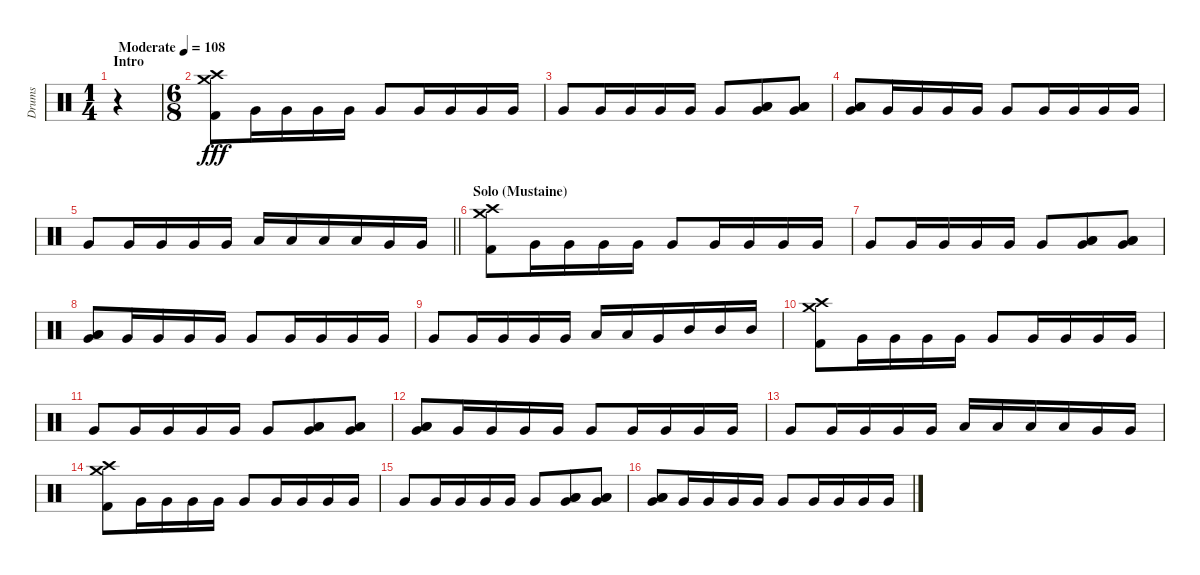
\track ("Drums" "Drums") {instrument percussion}
\staff {score}
\articulation defaults
\ts (1 4)
\section ("" "Intro")
\tempo (108 "Moderate")
\clef neutral
\ks c
r.4{dy fff} |
\ts (6 8)
("Crash medium (hit)" "Crash high (hit)" "Kick (hit) 2").8 "Very Low Tom (hit)".16 "Very Low Tom (hit)".16 "Very Low Tom (hit)".16 "Very Low Tom (hit)".16 "Very Low Tom (hit)".8 "Very Low Tom (hit)".16 "Very Low Tom (hit)".16 "Very Low Tom (hit)".16 "Very Low Tom (hit)".16 |
"Very Low Tom (hit)".8 "Very Low Tom (hit)".16 "Very Low Tom (hit)".16 "Very Low Tom (hit)".16 "Very Low Tom (hit)".16 "Very Low Tom (hit)".8 ("Low Floor Tom (hit)" "Low Tom (hit)" "Very Low Tom (hit)").8 ("Low Floor Tom (hit)" "Low Tom (hit)" "Very Low Tom (hit)").8 |
("Low Floor Tom (hit)" "Low Tom (hit)" "Very Low Tom (hit)").8 "Very Low Tom (hit)".16 "Very Low Tom (hit)".16 "Very Low Tom (hit)".16 "Very Low Tom (hit)".16 "Very Low Tom (hit)".8 "Very Low Tom (hit)".16 "Very Low Tom (hit)".16 "Very Low Tom (hit)".16 "Very Low Tom (hit)".16 |
\barLineRight lightlight "Very Low Tom (hit)".8 "Very Low Tom (hit)".16 "Very Low Tom (hit)".16 "Very Low Tom (hit)".16 "Very Low Tom (hit)".16 "Low Tom (hit)".16 "Low Tom (hit)".16 "Low Floor Tom (hit)".16 "Low Floor Tom (hit)".16 "Very Low Tom (hit)".16 "Very Low Tom (hit)".16
|
\section ("" "Solo (Mustaine)")
("Crash medium (hit)" "Crash high (hit)" "Kick (hit) 2").8 "Very Low Tom (hit)".16 "Very Low Tom (hit)".16 "Very Low Tom (hit)".16 "Very Low Tom (hit)".16 "Very Low Tom (hit)".8 "Very Low Tom (hit)".16 "Very Low Tom (hit)".16 "Very Low Tom (hit)".16 "Very Low Tom (hit)".16 |
"Very Low Tom (hit)".8 "Very Low Tom (hit)".16 "Very Low Tom (hit)".16 "Very Low Tom (hit)".16 "Very Low Tom (hit)".16 "Very Low Tom (hit)".8 ("Low Floor Tom (hit)" "Low Tom (hit)" "Very Low Tom (hit)").8 ("Low Floor Tom (hit)" "Low Tom (hit)" "Very Low Tom (hit)").8 |
("Low Floor Tom (hit)" "Low Tom (hit)" "Very Low Tom (hit)").8 "Very Low Tom (hit)".16 "Very Low Tom (hit)".16 "Very Low Tom (hit)".16 "Very Low Tom (hit)".16 "Very Low Tom (hit)".8 "Very Low Tom (hit)".16 "Very Low Tom (hit)".16 "Very Low Tom (hit)".16 "Very Low Tom (hit)".16 |
"Very Low Tom (hit)".8 "Very Low Tom (hit)".16 "Very Low Tom (hit)".16 "Very Low Tom (hit)".16 "Very Low Tom (hit)".16 "Low Tom (hit)".16 "Low Tom (hit)".16 "Very Low Tom (hit)".16 "Mid Tom (hit)".16 "Mid Tom (hit)".16 "Mid Tom (hit)".16 |
("Crash medium (hit)" "Crash high (hit)" "Kick (hit) 2").8 "Very Low Tom (hit)".16 "Very Low Tom (hit)".16 "Very Low Tom (hit)".16 "Very Low Tom (hit)".16 "Very Low Tom (hit)".8 "Very Low Tom (hit)".16 "Very Low Tom (hit)".16 "Very Low Tom (hit)".16 "Very Low Tom (hit)".16 |
"Very Low Tom (hit)".8 "Very Low Tom (hit)".16 "Very Low Tom (hit)".16 "Very Low Tom (hit)".16 "Very Low Tom (hit)".16 "Very Low Tom (hit)".8 ("Low Floor Tom (hit)" "Low Tom (hit)" "Very Low Tom (hit)").8 ("Low Floor Tom (hit)" "Low Tom (hit)" "Very Low Tom (hit)").8 |
("Low Floor Tom (hit)" "Low Tom (hit)" "Very Low Tom (hit)").8 "Very Low Tom (hit)".16 "Very Low Tom (hit)".16 "Very Low Tom (hit)".16 "Very Low Tom (hit)".16 "Very Low Tom (hit)".8 "Very Low Tom (hit)".16 "Very Low Tom (hit)".16 "Very Low Tom (hit)".16 "Very Low Tom (hit)".16 |
"Very Low Tom (hit)".8 "Very Low Tom (hit)".16 "Very Low Tom (hit)".16 "Very Low Tom (hit)".16 "Very Low Tom (hit)".16 "Low Tom (hit)".16 "Low Tom (hit)".16 "Low Floor Tom (hit)".16 "Low Floor Tom (hit)".16 "Very Low Tom (hit)".16 "Very Low Tom (hit)".16 |
("Crash medium (hit)" "Crash high (hit)" "Kick (hit) 2").8 "Very Low Tom (hit)".16 "Very Low Tom (hit)".16 "Very Low Tom (hit)".16 "Very Low Tom (hit)".16 "Very Low Tom (hit)".8 "Very Low Tom (hit)".16 "Very Low Tom (hit)".16 "Very Low Tom (hit)".16 "Very Low Tom (hit)".16 |
"Very Low Tom (hit)".8 "Very Low Tom (hit)".16 "Very Low Tom (hit)".16 "Very Low Tom (hit)".16 "Very Low Tom (hit)".16 "Very Low Tom (hit)".8 ("Low Floor Tom (hit)" "Low Tom (hit)" "Very Low Tom (hit)").8 ("Low Floor Tom (hit)" "Low Tom (hit)" "Very Low Tom (hit)").8 |
("Low Floor Tom (hit)" "Low Tom (hit)" "Very Low Tom (hit)").8 "Very Low Tom (hit)".16 "Very Low Tom (hit)".16 "Very Low Tom (hit)".16 "Very Low Tom (hit)".16 "Very Low Tom (hit)".8 "Very Low Tom (hit)".16 "Very Low Tom (hit)".16 "Very Low Tom (hit)".16 "Very Low Tom (hit)".16
